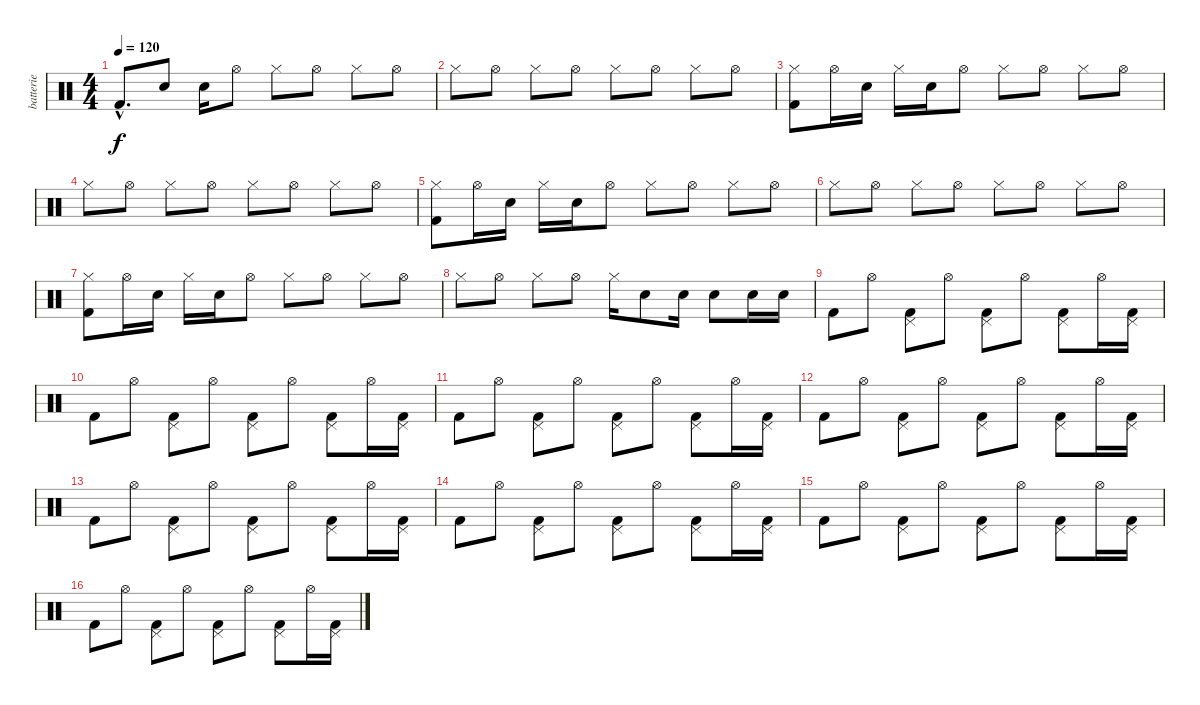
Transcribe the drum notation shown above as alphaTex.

\track ("batterie" "batterie") {instrument percussion}
\staff {score}
\articulation defaults
\ts (4 4)
\tempo 120
\clef neutral
\ks c "Kick (hit) 2"{hac}.8{d dy f} "Electric Snare (hit)".8 "Electric Snare (hit)".16 "Hi-Hat (open)".8 "Hi-Hat (closed)".8 "Hi-Hat (open)".8 "Hi-Hat (closed)".8 "Hi-Hat (open)".8
|
"Hi-Hat (closed)".8 "Hi-Hat (open)".8 "Hi-Hat (closed)".8 "Hi-Hat (open)".8 "Hi-Hat (closed)".8 "Hi-Hat (open)".8 "Hi-Hat (closed)".8 "Hi-Hat (open)".8 |
("Kick (hit) 2" "Hi-Hat (closed)").8 "Hi-Hat (open)".16 "Electric Snare (hit)".16 "Hi-Hat (closed)".16 "Electric Snare (hit)".16 "Hi-Hat (open)".8 "Hi-Hat (closed)".8 "Hi-Hat (open)".8 "Hi-Hat (closed)".8 "Hi-Hat (open)".8 |
"Hi-Hat (closed)".8 "Hi-Hat (open)".8 "Hi-Hat (closed)".8 "Hi-Hat (open)".8 "Hi-Hat (closed)".8 "Hi-Hat (open)".8 "Hi-Hat (closed)".8 "Hi-Hat (open)".8 |
("Kick (hit) 2" "Hi-Hat (closed)").8 "Hi-Hat (open)".16 "Electric Snare (hit)".16 "Hi-Hat (closed)".16 "Electric Snare (hit)".16 "Hi-Hat (open)".8 "Hi-Hat (closed)".8 "Hi-Hat (open)".8 "Hi-Hat (closed)".8 "Hi-Hat (open)".8 |
"Hi-Hat (closed)".8 "Hi-Hat (open)".8 "Hi-Hat (closed)".8 "Hi-Hat (open)".8 "Hi-Hat (closed)".8 "Hi-Hat (open)".8 "Hi-Hat (closed)".8 "Hi-Hat (open)".8 |
("Kick (hit) 2" "Hi-Hat (closed)").8 "Hi-Hat (open)".16 "Electric Snare (hit)".16 "Hi-Hat (closed)".16 "Electric Snare (hit)".16 "Hi-Hat (open)".8 "Hi-Hat (closed)".8 "Hi-Hat (open)".8 "Hi-Hat (closed)".8 "Hi-Hat (open)".8 |
"Hi-Hat (closed)".8 "Hi-Hat (open)".8 "Hi-Hat (closed)".8 "Hi-Hat (open)".8 "Hi-Hat (closed)".16 "Electric Snare (hit)".8 "Electric Snare (hit)".16 "Electric Snare (hit)".8 "Electric Snare (hit)".16 "Electric Snare (hit)".16 |
"Kick (hit) 2".8 "Hi-Hat (open)".8 ("Kick (hit) 2" "Pedal Hi-Hat (hit)").8 "Hi-Hat (open)".8 ("Kick (hit) 2" "Pedal Hi-Hat (hit)").8 "Hi-Hat (open)".8 ("Kick (hit) 2" "Pedal Hi-Hat (hit)").8 "Hi-Hat (open)".16 ("Kick (hit) 2" "Pedal Hi-Hat (hit)").16 |
"Kick (hit) 2".8 "Hi-Hat (open)".8 ("Kick (hit) 2" "Pedal Hi-Hat (hit)").8 "Hi-Hat (open)".8 ("Kick (hit) 2" "Pedal Hi-Hat (hit)").8 "Hi-Hat (open)".8 ("Kick (hit) 2" "Pedal Hi-Hat (hit)").8 "Hi-Hat (open)".16 ("Kick (hit) 2" "Pedal Hi-Hat (hit)").16 |
"Kick (hit) 2".8 "Hi-Hat (open)".8 ("Kick (hit) 2" "Pedal Hi-Hat (hit)").8 "Hi-Hat (open)".8 ("Kick (hit) 2" "Pedal Hi-Hat (hit)").8 "Hi-Hat (open)".8 ("Kick (hit) 2" "Pedal Hi-Hat (hit)").8 "Hi-Hat (open)".16 ("Kick (hit) 2" "Pedal Hi-Hat (hit)").16 |
"Kick (hit) 2".8 "Hi-Hat (open)".8 ("Kick (hit) 2" "Pedal Hi-Hat (hit)").8 "Hi-Hat (open)".8 ("Kick (hit) 2" "Pedal Hi-Hat (hit)").8 "Hi-Hat (open)".8 ("Kick (hit) 2" "Pedal Hi-Hat (hit)").8 "Hi-Hat (open)".16 ("Kick (hit) 2" "Pedal Hi-Hat (hit)").16 |
"Kick (hit) 2".8 "Hi-Hat (open)".8 ("Kick (hit) 2" "Pedal Hi-Hat (hit)").8 "Hi-Hat (open)".8 ("Kick (hit) 2" "Pedal Hi-Hat (hit)").8 "Hi-Hat (open)".8 ("Kick (hit) 2" "Pedal Hi-Hat (hit)").8 "Hi-Hat (open)".16 ("Kick (hit) 2" "Pedal Hi-Hat (hit)").16 |
"Kick (hit) 2".8 "Hi-Hat (open)".8 ("Kick (hit) 2" "Pedal Hi-Hat (hit)").8 "Hi-Hat (open)".8 ("Kick (hit) 2" "Pedal Hi-Hat (hit)").8 "Hi-Hat (open)".8 ("Kick (hit) 2" "Pedal Hi-Hat (hit)").8 "Hi-Hat (open)".16 ("Kick (hit) 2" "Pedal Hi-Hat (hit)").16 |
"Kick (hit) 2".8 "Hi-Hat (open)".8 ("Kick (hit) 2" "Pedal Hi-Hat (hit)").8 "Hi-Hat (open)".8 ("Kick (hit) 2" "Pedal Hi-Hat (hit)").8 "Hi-Hat (open)".8 ("Kick (hit) 2" "Pedal Hi-Hat (hit)").8 "Hi-Hat (open)".16 ("Kick (hit) 2" "Pedal Hi-Hat (hit)").16 |
"Kick (hit) 2".8 "Hi-Hat (open)".8 ("Kick (hit) 2" "Pedal Hi-Hat (hit)").8 "Hi-Hat (open)".8 ("Kick (hit) 2" "Pedal Hi-Hat (hit)").8 "Hi-Hat (open)".8 ("Kick (hit) 2" "Pedal Hi-Hat (hit)").8 "Hi-Hat (open)".16 ("Kick (hit) 2" "Pedal Hi-Hat (hit)").16
